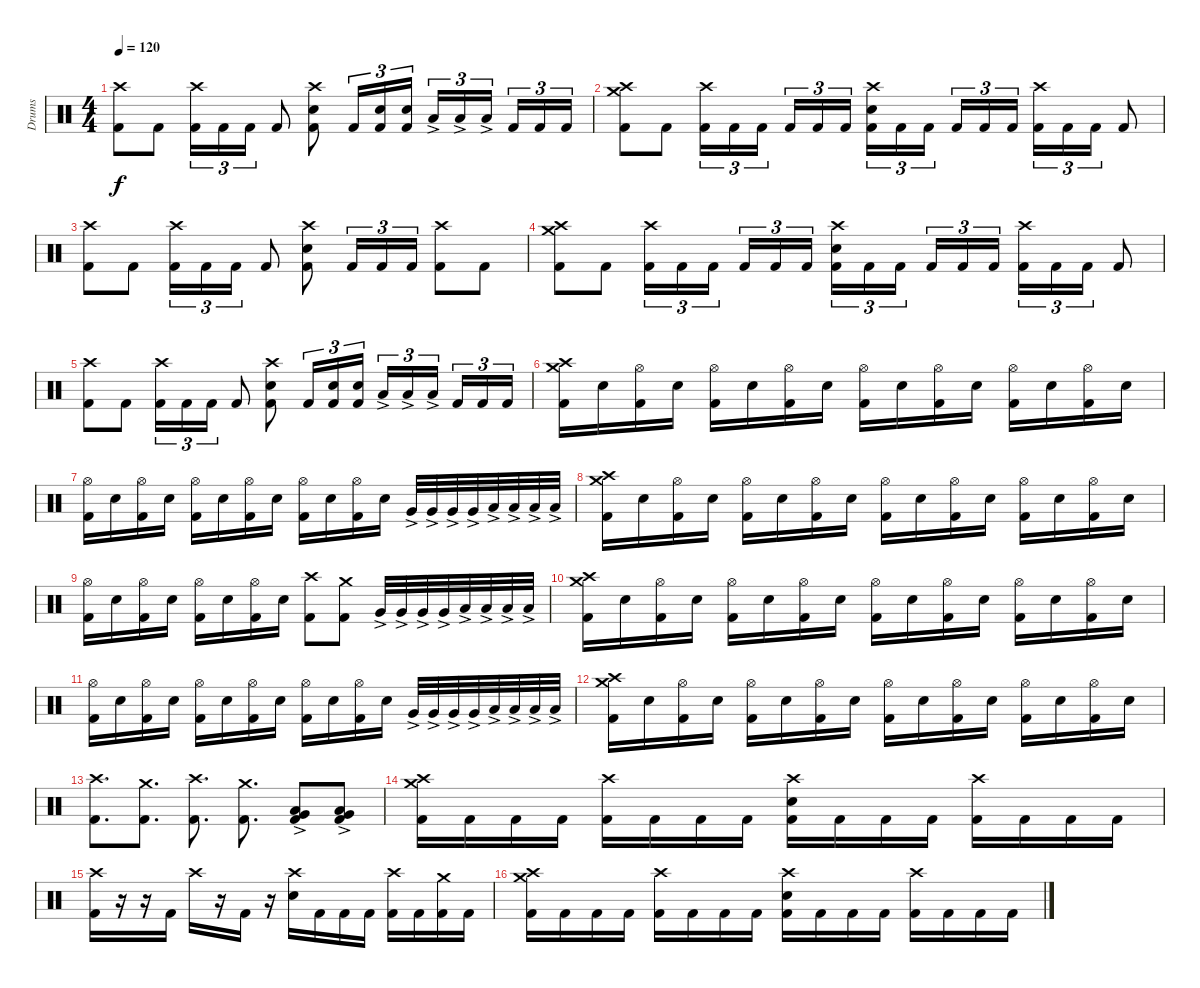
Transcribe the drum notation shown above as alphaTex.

\track ("Drums" "Drums") {instrument percussion}
\staff {score}
\articulation defaults
\ts (4 4)
\tempo 120
\clef neutral
\ks c
("Crash high (hit)" "Kick (hit) 2").8{dy f} "Kick (hit) 2".8 ("Crash high (hit)" "Kick (hit) 2").16{tu (3 2)} "Kick (hit) 2".16{tu (3 2)} "Kick (hit) 2".16{tu (3 2)} "Kick (hit) 2".8 ("Crash high (hit)" "Electric Snare (hit)" "Kick (hit) 2").8 "Kick (hit) 2".16{tu (3 2)} ("Electric Snare (hit)" "Kick (hit) 2").16{tu (3 2)} ("Electric Snare (hit)" "Kick (hit) 2").16{tu (3 2)} "Low Floor Tom (hit)"{ac}.16{tu (3 2)} "Low Floor Tom (hit)"{ac}.16{tu (3 2)} "Low Floor Tom (hit)"{ac}.16{tu (3 2)} "Kick (hit) 2".16{tu (3 2)} "Kick (hit) 2".16{tu (3 2)} "Kick (hit) 2".16{tu (3 2)} |
("Crash medium (hit)" "Crash high (hit)" "Kick (hit) 2").8 "Kick (hit) 2".8 ("Crash high (hit)" "Kick (hit) 2").16{tu (3 2)} "Kick (hit) 2".16{tu (3 2)} "Kick (hit) 2".16{tu (3 2)} "Kick (hit) 2".16{tu (3 2)} "Kick (hit) 2".16{tu (3 2)} "Kick (hit) 2".16{tu (3 2)} ("Crash high (hit)" "Electric Snare (hit)" "Kick (hit) 2").16{tu (3 2)} "Kick (hit) 2".16{tu (3 2)} "Kick (hit) 2".16{tu (3 2)} "Kick (hit) 2".16{tu (3 2)} "Kick (hit) 2".16{tu (3 2)} "Kick (hit) 2".16{tu (3 2)} ("Crash high (hit)" "Kick (hit) 2").16{tu (3 2)} "Kick (hit) 2".16{tu (3 2)} "Kick (hit) 2".16{tu (3 2)} "Kick (hit) 2".8 |
("Crash high (hit)" "Kick (hit) 2").8 "Kick (hit) 2".8 ("Crash high (hit)" "Kick (hit) 2").16{tu (3 2)} "Kick (hit) 2".16{tu (3 2)} "Kick (hit) 2".16{tu (3 2)} "Kick (hit) 2".8 ("Crash high (hit)" "Electric Snare (hit)" "Kick (hit) 2").8 "Kick (hit) 2".16{tu (3 2)} "Kick (hit) 2".16{tu (3 2)} "Kick (hit) 2".16{tu (3 2)} ("Crash high (hit)" "Kick (hit) 2").8 "Kick (hit) 2".8 |
("Crash medium (hit)" "Crash high (hit)" "Kick (hit) 2").8 "Kick (hit) 2".8 ("Crash high (hit)" "Kick (hit) 2").16{tu (3 2)} "Kick (hit) 2".16{tu (3 2)} "Kick (hit) 2".16{tu (3 2)} "Kick (hit) 2".16{tu (3 2)} "Kick (hit) 2".16{tu (3 2)} "Kick (hit) 2".16{tu (3 2)} ("Crash high (hit)" "Electric Snare (hit)" "Kick (hit) 2").16{tu (3 2)} "Kick (hit) 2".16{tu (3 2)} "Kick (hit) 2".16{tu (3 2)} "Kick (hit) 2".16{tu (3 2)} "Kick (hit) 2".16{tu (3 2)} "Kick (hit) 2".16{tu (3 2)} ("Crash high (hit)" "Kick (hit) 2").16{tu (3 2)} "Kick (hit) 2".16{tu (3 2)} "Kick (hit) 2".16{tu (3 2)} "Kick (hit) 2".8 |
("Crash high (hit)" "Kick (hit) 2").8 "Kick (hit) 2".8 ("Crash high (hit)" "Kick (hit) 2").16{tu (3 2)} "Kick (hit) 2".16{tu (3 2)} "Kick (hit) 2".16{tu (3 2)} "Kick (hit) 2".8 ("Crash high (hit)" "Electric Snare (hit)" "Kick (hit) 2").8 "Kick (hit) 2".16{tu (3 2)} ("Electric Snare (hit)" "Kick (hit) 2").16{tu (3 2)} ("Electric Snare (hit)" "Kick (hit) 2").16{tu (3 2)} "Low Floor Tom (hit)"{ac}.16{tu (3 2)} "Low Floor Tom (hit)"{ac}.16{tu (3 2)} "Low Floor Tom (hit)"{ac}.16{tu (3 2)} "Kick (hit) 2".16{tu (3 2)} "Kick (hit) 2".16{tu (3 2)} "Kick (hit) 2".16{tu (3 2)} |
("Crash medium (hit)" "Crash high (hit)" "Kick (hit) 2").16 "Electric Snare (hit)".16 ("Hi-Hat (open)" "Kick (hit) 2").16 "Electric Snare (hit)".16 ("Hi-Hat (open)" "Kick (hit) 2").16 "Electric Snare (hit)".16 ("Hi-Hat (open)" "Kick (hit) 2").16 "Electric Snare (hit)".16 ("Hi-Hat (open)" "Kick (hit) 2").16 "Electric Snare (hit)".16 ("Hi-Hat (open)" "Kick (hit) 2").16 "Electric Snare (hit)".16 ("Hi-Hat (open)" "Kick (hit) 2").16 "Electric Snare (hit)".16 ("Hi-Hat (open)" "Kick (hit) 2").16 "Electric Snare (hit)".16 |
("Hi-Hat (open)" "Kick (hit) 2").16 "Electric Snare (hit)".16 ("Hi-Hat (open)" "Kick (hit) 2").16 "Electric Snare (hit)".16 ("Hi-Hat (open)" "Kick (hit) 2").16 "Electric Snare (hit)".16 ("Hi-Hat (open)" "Kick (hit) 2").16 "Electric Snare (hit)".16 ("Hi-Hat (open)" "Kick (hit) 2").16 "Electric Snare (hit)".16 ("Hi-Hat (open)" "Kick (hit) 2").16 "Electric Snare (hit)".16 "Very Low Tom (hit)"{ac}.32 "Very Low Tom (hit)"{ac}.32 "Very Low Tom (hit)"{ac}.32 "Very Low Tom (hit)"{ac}.32 "Low Floor Tom (hit)"{ac}.32 "Low Floor Tom (hit)"{ac}.32 "Low Floor Tom (hit)"{ac}.32 "Low Floor Tom (hit)"{ac}.32 |
("Crash medium (hit)" "Crash high (hit)" "Kick (hit) 2").16 "Electric Snare (hit)".16 ("Hi-Hat (open)" "Kick (hit) 2").16 "Electric Snare (hit)".16 ("Hi-Hat (open)" "Kick (hit) 2").16 "Electric Snare (hit)".16 ("Hi-Hat (open)" "Kick (hit) 2").16 "Electric Snare (hit)".16 ("Hi-Hat (open)" "Kick (hit) 2").16 "Electric Snare (hit)".16 ("Hi-Hat (open)" "Kick (hit) 2").16 "Electric Snare (hit)".16 ("Hi-Hat (open)" "Kick (hit) 2").16 "Electric Snare (hit)".16 ("Hi-Hat (open)" "Kick (hit) 2").16 "Electric Snare (hit)".16 |
("Hi-Hat (open)" "Kick (hit) 2").16 "Electric Snare (hit)".16 ("Hi-Hat (open)" "Kick (hit) 2").16 "Electric Snare (hit)".16 ("Hi-Hat (open)" "Kick (hit) 2").16 "Electric Snare (hit)".16 ("Hi-Hat (open)" "Kick (hit) 2").16 "Electric Snare (hit)".16 ("Crash high (hit)" "Kick (hit) 2").8 ("Crash medium (hit)" "Kick (hit) 2").8 "Very Low Tom (hit)"{ac}.32 "Very Low Tom (hit)"{ac}.32 "Very Low Tom (hit)"{ac}.32 "Very Low Tom (hit)"{ac}.32 "Low Floor Tom (hit)"{ac}.32 "Low Floor Tom (hit)"{ac}.32 "Low Floor Tom (hit)"{ac}.32 "Low Floor Tom (hit)"{ac}.32 |
("Crash medium (hit)" "Crash high (hit)" "Kick (hit) 2").16 "Electric Snare (hit)".16 ("Hi-Hat (open)" "Kick (hit) 2").16 "Electric Snare (hit)".16 ("Hi-Hat (open)" "Kick (hit) 2").16 "Electric Snare (hit)".16 ("Hi-Hat (open)" "Kick (hit) 2").16 "Electric Snare (hit)".16 ("Hi-Hat (open)" "Kick (hit) 2").16 "Electric Snare (hit)".16 ("Hi-Hat (open)" "Kick (hit) 2").16 "Electric Snare (hit)".16 ("Hi-Hat (open)" "Kick (hit) 2").16 "Electric Snare (hit)".16 ("Hi-Hat (open)" "Kick (hit) 2").16 "Electric Snare (hit)".16 |
("Hi-Hat (open)" "Kick (hit) 2").16 "Electric Snare (hit)".16 ("Hi-Hat (open)" "Kick (hit) 2").16 "Electric Snare (hit)".16 ("Hi-Hat (open)" "Kick (hit) 2").16 "Electric Snare (hit)".16 ("Hi-Hat (open)" "Kick (hit) 2").16 "Electric Snare (hit)".16 ("Hi-Hat (open)" "Kick (hit) 2").16 "Electric Snare (hit)".16 ("Hi-Hat (open)" "Kick (hit) 2").16 "Electric Snare (hit)".16 "Very Low Tom (hit)"{ac}.32 "Very Low Tom (hit)"{ac}.32 "Very Low Tom (hit)"{ac}.32 "Very Low Tom (hit)"{ac}.32 "Low Floor Tom (hit)"{ac}.32 "Low Floor Tom (hit)"{ac}.32 "Low Floor Tom (hit)"{ac}.32 "Low Floor Tom (hit)"{ac}.32 |
("Crash medium (hit)" "Crash high (hit)" "Kick (hit) 2").16 "Electric Snare (hit)".16 ("Hi-Hat (open)" "Kick (hit) 2").16 "Electric Snare (hit)".16 ("Hi-Hat (open)" "Kick (hit) 2").16 "Electric Snare (hit)".16 ("Hi-Hat (open)" "Kick (hit) 2").16 "Electric Snare (hit)".16 ("Hi-Hat (open)" "Kick (hit) 2").16 "Electric Snare (hit)".16 ("Hi-Hat (open)" "Kick (hit) 2").16 "Electric Snare (hit)".16 ("Hi-Hat (open)" "Kick (hit) 2").16 "Electric Snare (hit)".16 ("Hi-Hat (open)" "Kick (hit) 2").16 "Electric Snare (hit)".16 |
("Crash high (hit)" "Kick (hit) 2").8{d} ("Crash medium (hit)" "Kick (hit) 2").8{d} ("Crash high (hit)" "Kick (hit) 2").8{d} ("Crash medium (hit)" "Kick (hit) 2").8{d} ("Low Tom (hit)"{ac} "Very Low Tom (hit)"{ac} "Kick (hit) 2").8 ("Very Low Tom (hit)"{ac} "Low Floor Tom (hit)"{ac} "Kick (hit) 2").8 |
("Crash medium (hit)" "Crash high (hit)" "Kick (hit) 2").16 "Kick (hit) 2".16 "Kick (hit) 2".16 "Kick (hit) 2".16 ("Crash high (hit)" "Kick (hit) 2").16 "Kick (hit) 2".16 "Kick (hit) 2".16 "Kick (hit) 2".16 ("Crash high (hit)" "Electric Snare (hit)" "Kick (hit) 2").16 "Kick (hit) 2".16 "Kick (hit) 2".16 "Kick (hit) 2".16 ("Crash high (hit)" "Kick (hit) 2").16 "Kick (hit) 2".16 "Kick (hit) 2".16 "Kick (hit) 2".16 |
("Crash high (hit)" "Kick (hit) 2").16 r.16 r.16 "Kick (hit) 2".16 "Crash high (hit)".16 r.16 "Kick (hit) 2".16 r.16 ("Crash high (hit)" "Electric Snare (hit)").16 "Kick (hit) 2".16 "Kick (hit) 2".16 "Kick (hit) 2".16 ("Crash high (hit)" "Kick (hit) 2").16 "Kick (hit) 2".16 ("Crash medium (hit)" "Kick (hit) 2").16 "Kick (hit) 2".16 |
("Crash medium (hit)" "Crash high (hit)" "Kick (hit) 2").16 "Kick (hit) 2".16 "Kick (hit) 2".16 "Kick (hit) 2".16 ("Crash high (hit)" "Kick (hit) 2").16 "Kick (hit) 2".16 "Kick (hit) 2".16 "Kick (hit) 2".16 ("Crash high (hit)" "Electric Snare (hit)" "Kick (hit) 2").16 "Kick (hit) 2".16 "Kick (hit) 2".16 "Kick (hit) 2".16 ("Crash high (hit)" "Kick (hit) 2").16 "Kick (hit) 2".16 "Kick (hit) 2".16 "Kick (hit) 2".16
